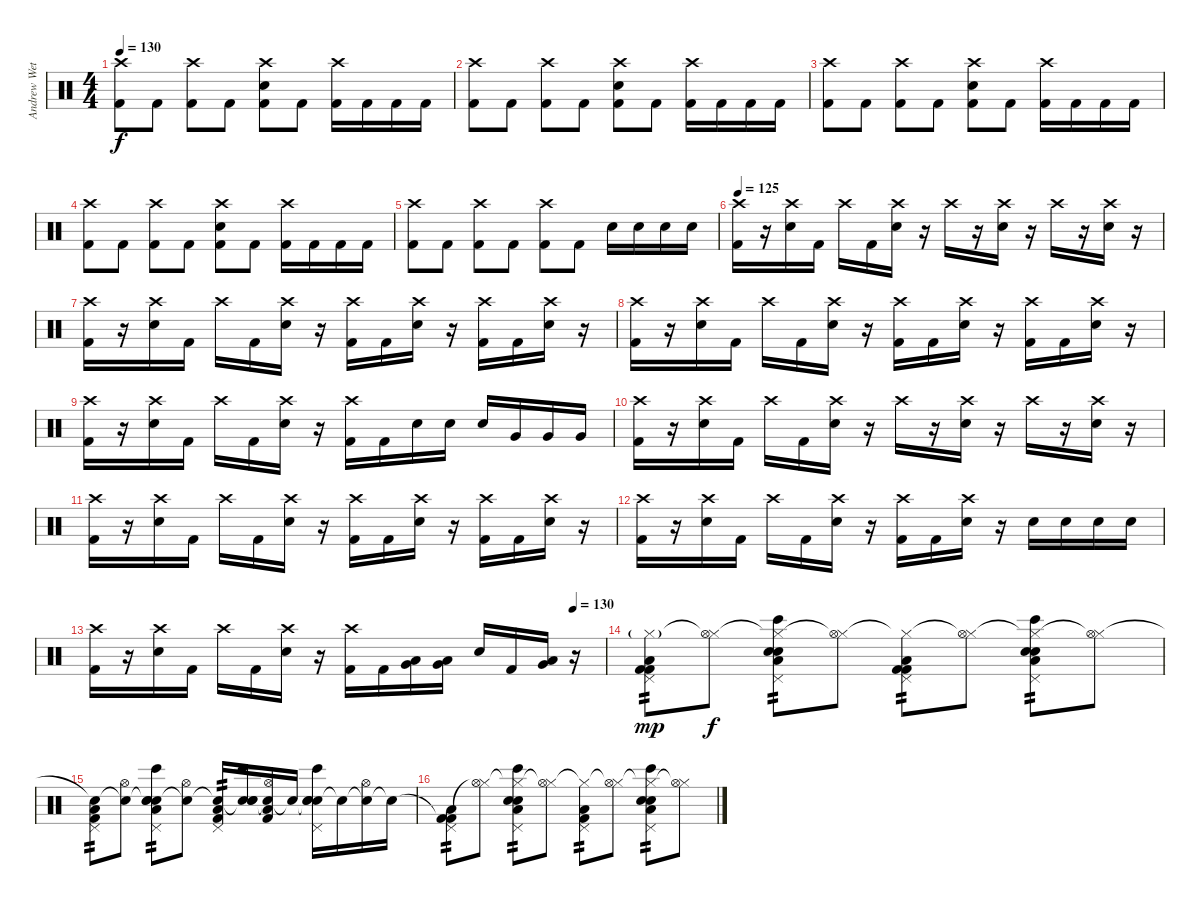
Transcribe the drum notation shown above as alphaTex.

\track ("Andrew Wetzel" "Andrew Wet") {instrument percussion}
\staff {score}
\articulation defaults
\ts (4 4)
\tempo 130
\clef neutral
\ks c
("Crash high (hit)" "Kick (hit) 2").8{dy f} "Kick (hit) 2".8 ("Crash high (hit)" "Kick (hit) 2").8 "Kick (hit) 2".8 ("Crash high (hit)" "Electric Snare (hit)" "Kick (hit) 2").8 "Kick (hit) 2".8 ("Crash high (hit)" "Kick (hit) 2").16 "Kick (hit) 2".16 "Kick (hit) 2".16 "Kick (hit) 2".16 |
("Crash high (hit)" "Kick (hit) 2").8 "Kick (hit) 2".8 ("Crash high (hit)" "Kick (hit) 2").8 "Kick (hit) 2".8 ("Crash high (hit)" "Electric Snare (hit)" "Kick (hit) 2").8 "Kick (hit) 2".8 ("Crash high (hit)" "Kick (hit) 2").16 "Kick (hit) 2".16 "Kick (hit) 2".16 "Kick (hit) 2".16 |
("Crash high (hit)" "Kick (hit) 2").8 "Kick (hit) 2".8 ("Crash high (hit)" "Kick (hit) 2").8 "Kick (hit) 2".8 ("Crash high (hit)" "Electric Snare (hit)" "Kick (hit) 2").8 "Kick (hit) 2".8 ("Crash high (hit)" "Kick (hit) 2").16 "Kick (hit) 2".16 "Kick (hit) 2".16 "Kick (hit) 2".16 |
("Crash high (hit)" "Kick (hit) 2").8 "Kick (hit) 2".8 ("Crash high (hit)" "Kick (hit) 2").8 "Kick (hit) 2".8 ("Crash high (hit)" "Electric Snare (hit)" "Kick (hit) 2").8 "Kick (hit) 2".8 ("Crash high (hit)" "Kick (hit) 2").16 "Kick (hit) 2".16 "Kick (hit) 2".16 "Kick (hit) 2".16 |
("Crash high (hit)" "Kick (hit) 2").8 "Kick (hit) 2".8 ("Crash high (hit)" "Kick (hit) 2").8 "Kick (hit) 2".8 ("Crash high (hit)" "Kick (hit) 2").8 "Kick (hit) 2".8 "Electric Snare (hit)".16 "Electric Snare (hit)".16 "Electric Snare (hit)".16 "Electric Snare (hit)".16 |
\tempo 125
("Crash high (hit)" "Kick (hit) 2").16 r.16 ("Crash high (hit)" "Electric Snare (hit)").16 "Kick (hit) 2".16 "Crash high (hit)".16 "Kick (hit) 2".16 ("Crash high (hit)" "Electric Snare (hit)").16 r.16 "Crash high (hit)".16 r.16 ("Crash high (hit)" "Electric Snare (hit)").16 r.16 "Crash high (hit)".16 r.16 ("Crash high (hit)" "Electric Snare (hit)").16 r.16 |
("Crash high (hit)" "Kick (hit) 2").16 r.16 ("Crash high (hit)" "Electric Snare (hit)").16 "Kick (hit) 2".16 "Crash high (hit)".16 "Kick (hit) 2".16 ("Crash high (hit)" "Electric Snare (hit)").16 r.16 ("Crash high (hit)" "Kick (hit) 2").16 "Kick (hit) 2".16 ("Crash high (hit)" "Electric Snare (hit)").16 r.16 ("Crash high (hit)" "Kick (hit) 2").16 "Kick (hit) 2".16 ("Crash high (hit)" "Electric Snare (hit)").16 r.16 |
("Crash high (hit)" "Kick (hit) 2").16 r.16 ("Crash high (hit)" "Electric Snare (hit)").16 "Kick (hit) 2".16 "Crash high (hit)".16 "Kick (hit) 2".16 ("Crash high (hit)" "Electric Snare (hit)").16 r.16 ("Crash high (hit)" "Kick (hit) 2").16 "Kick (hit) 2".16 ("Crash high (hit)" "Electric Snare (hit)").16 r.16 ("Crash high (hit)" "Kick (hit) 2").16 "Kick (hit) 2".16 ("Crash high (hit)" "Electric Snare (hit)").16 r.16 |
("Crash high (hit)" "Kick (hit) 2").16 r.16 ("Crash high (hit)" "Electric Snare (hit)").16 "Kick (hit) 2".16 "Crash high (hit)".16 "Kick (hit) 2".16 ("Crash high (hit)" "Electric Snare (hit)").16 r.16 ("Crash high (hit)" "Kick (hit) 2").16 "Kick (hit) 2".16 "Electric Snare (hit)".16 "Electric Snare (hit)".16 "Electric Snare (hit)".16 "Very Low Tom (hit)".16 "Very Low Tom (hit)".16 "Very Low Tom (hit)".16 |
("Crash high (hit)" "Kick (hit) 2").16 r.16 ("Crash high (hit)" "Electric Snare (hit)").16 "Kick (hit) 2".16 "Crash high (hit)".16 "Kick (hit) 2".16 ("Crash high (hit)" "Electric Snare (hit)").16 r.16 "Crash high (hit)".16 r.16 ("Crash high (hit)" "Electric Snare (hit)").16 r.16 "Crash high (hit)".16 r.16 ("Crash high (hit)" "Electric Snare (hit)").16 r.16 |
("Crash high (hit)" "Kick (hit) 2").16 r.16 ("Crash high (hit)" "Electric Snare (hit)").16 "Kick (hit) 2".16 "Crash high (hit)".16 "Kick (hit) 2".16 ("Crash high (hit)" "Electric Snare (hit)").16 r.16 ("Crash high (hit)" "Kick (hit) 2").16 "Kick (hit) 2".16 ("Crash high (hit)" "Electric Snare (hit)").16 r.16 ("Crash high (hit)" "Kick (hit) 2").16 "Kick (hit) 2".16 ("Crash high (hit)" "Electric Snare (hit)").16 r.16 |
("Crash high (hit)" "Kick (hit) 2").16 r.16 ("Crash high (hit)" "Electric Snare (hit)").16 "Kick (hit) 2".16 "Crash high (hit)".16 "Kick (hit) 2".16 ("Crash high (hit)" "Electric Snare (hit)").16 r.16 ("Crash high (hit)" "Kick (hit) 2").16 "Kick (hit) 2".16 ("Crash high (hit)" "Electric Snare (hit)").16 r.16 "Electric Snare (hit)".16 "Electric Snare (hit)".16 "Electric Snare (hit)".16 "Electric Snare (hit)".16 |
\tempo (130 0.9375)
("Crash high (hit)" "Kick (hit) 2").16 r.16 ("Crash high (hit)" "Electric Snare (hit)").16 "Kick (hit) 2".16 "Crash high (hit)".16 "Kick (hit) 2".16 ("Crash high (hit)" "Electric Snare (hit)").16 r.16 ("Crash high (hit)" "Kick (hit) 2").16 "Kick (hit) 2".16 ("Low Floor Tom (hit)" "Very Low Tom (hit)").16 ("Low Floor Tom (hit)" "Very Low Tom (hit)").16 "Electric Snare (hit)".16 "Kick (hit) 2".16 ("Low Floor Tom (hit)" "Very Low Tom (hit)").16 r.16{volume 16} |
("Hi-Hat (closed)"{g} "Pedal Hi-Hat (hit)" "Kick (hit) 2" "Kick (hit) 2" "Low Floor Tom (hit)").8{tp 2 dy mp} ("Hi-Hat (closed)"{t} "Hi-Hat (open)").8{dy f} ("Hi-Hat (closed)"{t} "Electric Snare (hit)" "Pedal Hi-Hat (hit)" "Bongo High (hit)" "Hand Clap (hit)" "Low Floor Tom (hit)").8{tp 2} ("Hi-Hat (closed)"{t} "Hi-Hat (open)").8 ("Hi-Hat (closed)"{t} "Pedal Hi-Hat (hit)" "Kick (hit) 2" "Kick (hit) 2" "Low Floor Tom (hit)").8{tp 2} ("Hi-Hat (closed)"{t} "Hi-Hat (open)").8 ("Hi-Hat (closed)"{t} "Electric Snare (hit)" "Pedal Hi-Hat (hit)" "Bongo High (hit)" "Hand Clap (hit)" "Low Floor Tom (hit)").8{tp 2} ("Hi-Hat (closed)"{t} "Hi-Hat (open)").8 |
("Snare (hit)"{t} "Pedal Hi-Hat (hit)" "Kick (hit) 2" "Low Floor Tom (hit)").8{tp 2} ("Snare (hit)"{t} "Hi-Hat (open)").8 ("Snare (hit)"{t} "Electric Snare (hit)" "Pedal Hi-Hat (hit)" "Bongo High (hit)" "Hand Clap (hit)" "Low Floor Tom (hit)").8{tp 2} ("Snare (hit)"{t} "Hi-Hat (open)").8 ("Snare (hit)"{t} "Pedal Hi-Hat (hit)" "Kick (hit) 2" "Low Floor Tom (hit)").16{tp 2} ("Snare (hit)"{t} "Electric Snare (hit)" "Bongo High (hit)" "Hand Clap (hit)").16 ("Snare (hit)"{t} "Hi-Hat (open)" "Low Floor Tom (hit)" "Kick (hit) 2").16 "Snare (hit)"{t}.16 ("Snare (hit)"{t} "Electric Snare (hit)" "Pedal Hi-Hat (hit)" "Bongo High (hit)" "Hand Clap (hit)").16 "Snare (hit)"{t}.16 ("Snare (hit)"{t} "Hi-Hat (open)").16 "Snare (hit)"{t}.16 |
("Kick (hit) 2"{t} "Pedal Hi-Hat (hit)" "Kick (hit) 2" "Low Floor Tom (hit)").8{tp 2} ("Hi-Hat (closed)"{t} "Hi-Hat (open)").8 ("Hi-Hat (closed)"{t} "Electric Snare (hit)" "Pedal Hi-Hat (hit)" "Bongo High (hit)" "Hand Clap (hit)" "Low Floor Tom (hit)").8{tp 2} ("Hi-Hat (closed)"{t} "Hi-Hat (open)").8 ("Hi-Hat (closed)"{t} "Pedal Hi-Hat (hit)" "Kick (hit) 2" "Low Floor Tom (hit)").8{tp 2} ("Hi-Hat (closed)"{t} "Hi-Hat (open)").8 ("Hi-Hat (closed)"{t} "Electric Snare (hit)" "Pedal Hi-Hat (hit)" "Bongo High (hit)" "Hand Clap (hit)" "Low Floor Tom (hit)").8{tp 2} ("Hi-Hat (closed)"{t} "Hi-Hat (open)").8
